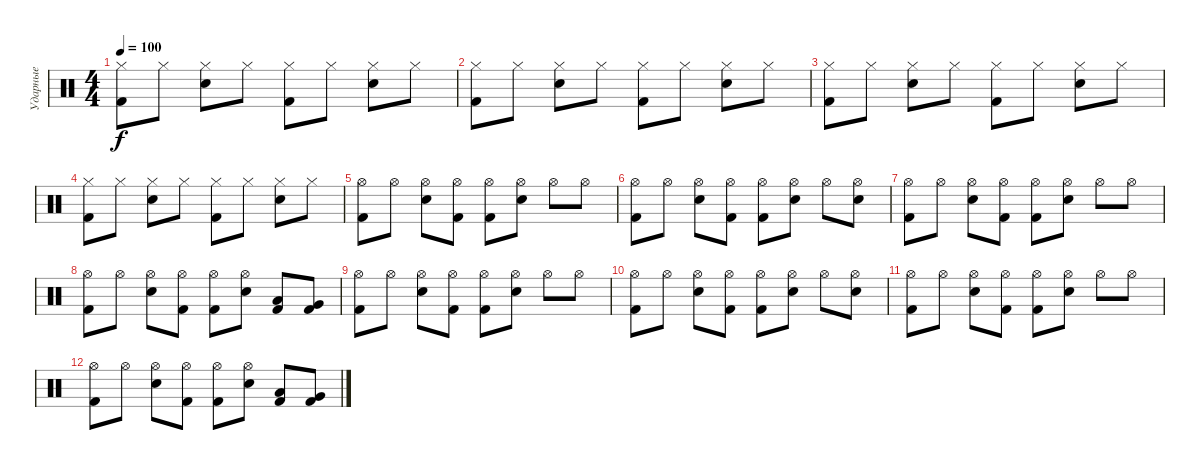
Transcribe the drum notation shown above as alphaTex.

\track ("Ударные" "Ударные") {instrument percussion}
\staff {score}
\articulation defaults
\ts (4 4)
\tempo 100
\clef neutral
\ks c
("Kick (hit) 2" "Hi-Hat (closed)").8{dy f} "Hi-Hat (closed)".8 ("Electric Snare (hit)" "Hi-Hat (closed)").8 "Hi-Hat (closed)".8 ("Kick (hit) 2" "Hi-Hat (closed)").8 "Hi-Hat (closed)".8 ("Electric Snare (hit)" "Hi-Hat (closed)").8 "Hi-Hat (closed)".8 |
("Kick (hit) 2" "Hi-Hat (closed)").8 "Hi-Hat (closed)".8 ("Electric Snare (hit)" "Hi-Hat (closed)").8 "Hi-Hat (closed)".8 ("Kick (hit) 2" "Hi-Hat (closed)").8 "Hi-Hat (closed)".8 ("Electric Snare (hit)" "Hi-Hat (closed)").8 "Hi-Hat (closed)".8 |
("Kick (hit) 2" "Hi-Hat (closed)").8 "Hi-Hat (closed)".8 ("Electric Snare (hit)" "Hi-Hat (closed)").8 "Hi-Hat (closed)".8 ("Kick (hit) 2" "Hi-Hat (closed)").8 "Hi-Hat (closed)".8 ("Electric Snare (hit)" "Hi-Hat (closed)").8 "Hi-Hat (closed)".8 |
("Kick (hit) 2" "Hi-Hat (closed)").8 "Hi-Hat (closed)".8 ("Electric Snare (hit)" "Hi-Hat (closed)").8 "Hi-Hat (closed)".8 ("Kick (hit) 2" "Hi-Hat (closed)").8 "Hi-Hat (closed)".8 ("Electric Snare (hit)" "Hi-Hat (closed)").8 "Hi-Hat (closed)".8 |
("Kick (hit) 2" "Hi-Hat (open)").8 "Hi-Hat (open)".8 ("Electric Snare (hit)" "Hi-Hat (open)").8 ("Kick (hit) 2" "Hi-Hat (open)").8 ("Kick (hit) 2" "Hi-Hat (open)").8 ("Electric Snare (hit)" "Hi-Hat (open)").8 "Hi-Hat (open)".8 "Hi-Hat (open)".8 |
("Kick (hit) 2" "Hi-Hat (open)").8 "Hi-Hat (open)".8 ("Electric Snare (hit)" "Hi-Hat (open)").8 ("Kick (hit) 2" "Hi-Hat (open)").8 ("Kick (hit) 2" "Hi-Hat (open)").8 ("Electric Snare (hit)" "Hi-Hat (open)").8 "Hi-Hat (open)".8 ("Electric Snare (hit)" "Hi-Hat (open)").8 |
("Kick (hit) 2" "Hi-Hat (open)").8 "Hi-Hat (open)".8 ("Electric Snare (hit)" "Hi-Hat (open)").8 ("Kick (hit) 2" "Hi-Hat (open)").8 ("Kick (hit) 2" "Hi-Hat (open)").8 ("Electric Snare (hit)" "Hi-Hat (open)").8 "Hi-Hat (open)".8 "Hi-Hat (open)".8 |
("Kick (hit) 2" "Hi-Hat (open)").8 "Hi-Hat (open)".8 ("Electric Snare (hit)" "Hi-Hat (open)").8 ("Kick (hit) 2" "Hi-Hat (open)").8 ("Kick (hit) 2" "Hi-Hat (open)").8 ("Electric Snare (hit)" "Hi-Hat (open)").8 ("Low Tom (hit)" "Kick (hit) 2").8 ("Very Low Tom (hit)" "Kick (hit) 2").8 |
("Kick (hit) 2" "Hi-Hat (open)").8 "Hi-Hat (open)".8 ("Electric Snare (hit)" "Hi-Hat (open)").8 ("Kick (hit) 2" "Hi-Hat (open)").8 ("Kick (hit) 2" "Hi-Hat (open)").8 ("Electric Snare (hit)" "Hi-Hat (open)").8 "Hi-Hat (open)".8 "Hi-Hat (open)".8 |
("Kick (hit) 2" "Hi-Hat (open)").8 "Hi-Hat (open)".8 ("Electric Snare (hit)" "Hi-Hat (open)").8 ("Kick (hit) 2" "Hi-Hat (open)").8 ("Kick (hit) 2" "Hi-Hat (open)").8 ("Electric Snare (hit)" "Hi-Hat (open)").8 "Hi-Hat (open)".8 ("Electric Snare (hit)" "Hi-Hat (open)").8 |
("Kick (hit) 2" "Hi-Hat (open)").8 "Hi-Hat (open)".8 ("Electric Snare (hit)" "Hi-Hat (open)").8 ("Kick (hit) 2" "Hi-Hat (open)").8 ("Kick (hit) 2" "Hi-Hat (open)").8 ("Electric Snare (hit)" "Hi-Hat (open)").8 "Hi-Hat (open)".8 "Hi-Hat (open)".8 |
("Kick (hit) 2" "Hi-Hat (open)").8 "Hi-Hat (open)".8 ("Electric Snare (hit)" "Hi-Hat (open)").8 ("Kick (hit) 2" "Hi-Hat (open)").8 ("Kick (hit) 2" "Hi-Hat (open)").8 ("Electric Snare (hit)" "Hi-Hat (open)").8 ("Low Tom (hit)" "Kick (hit) 2").8 ("Very Low Tom (hit)" "Kick (hit) 2").8
